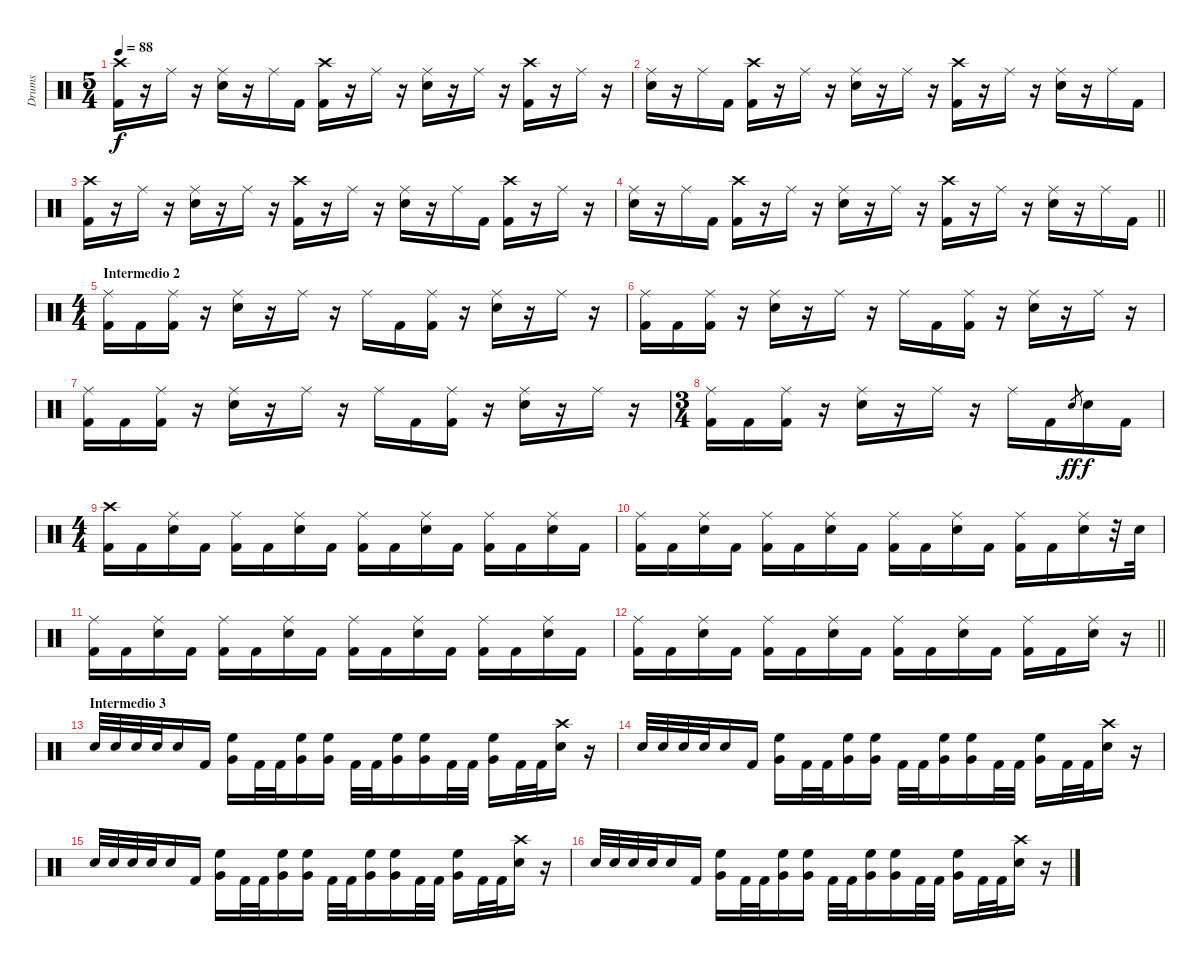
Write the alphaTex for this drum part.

\track ("Drums" "Drums") {instrument percussion}
\staff {score}
\articulation defaults
\ts (5 4)
\tempo 88
\clef neutral
\ks c
("Crash high (hit)" "Kick (hit) 2").16{dy f} r.16 "Ride (middle)".16 r.16 ("Ride (middle)" "Snare (hit) 2").16 r.16 "Ride (middle)".16 "Kick (hit) 2".16 ("Crash high (hit)" "Kick (hit) 2").16 r.16 "Ride (middle)".16 r.16 ("Ride (middle)" "Snare (hit) 2").16 r.16 "Ride (middle)".16 r.16 ("Crash high (hit)" "Kick (hit) 2").16 r.16 "Ride (middle)".16 r.16 |
("Ride (middle)" "Snare (hit) 2").16 r.16 "Ride (middle)".16 "Kick (hit) 2".16 ("Crash high (hit)" "Kick (hit) 2").16 r.16 "Ride (middle)".16 r.16 ("Ride (middle)" "Snare (hit) 2").16 r.16 "Ride (middle)".16 r.16 ("Crash high (hit)" "Kick (hit) 2").16 r.16 "Ride (middle)".16 r.16 ("Ride (middle)" "Snare (hit) 2").16 r.16 "Ride (middle)".16 "Kick (hit) 2".16 |
("Crash high (hit)" "Kick (hit) 2").16 r.16 "Ride (middle)".16 r.16 ("Ride (middle)" "Snare (hit) 2").16 r.16 "Ride (middle)".16 r.16 ("Crash high (hit)" "Kick (hit) 2").16 r.16 "Ride (middle)".16 r.16 ("Ride (middle)" "Snare (hit) 2").16 r.16 "Ride (middle)".16 "Kick (hit) 2".16 ("Crash high (hit)" "Kick (hit) 2").16 r.16 "Ride (middle)".16 r.16 |
\barLineRight lightlight
("Ride (middle)" "Snare (hit) 2").16 r.16 "Ride (middle)".16 "Kick (hit) 2".16 ("Crash high (hit)" "Kick (hit) 2").16 r.16 "Ride (middle)".16 r.16 ("Ride (middle)" "Snare (hit) 2").16 r.16 "Ride (middle)".16 r.16 ("Crash high (hit)" "Kick (hit) 2").16 r.16 "Ride (middle)".16 r.16 ("Ride (middle)" "Snare (hit) 2").16 r.16 "Ride (middle)".16 "Kick (hit) 2".16 |
\ts (4 4)
\section ("" "Intermedio 2")
("Ride (middle)" "Kick (hit) 2").16 "Kick (hit) 2".16 ("Ride (middle)" "Kick (hit) 2").16 r.16 ("Ride (middle)" "Snare (hit) 2").16 r.16 "Ride (middle)".16 r.16 "Ride (middle)".16 "Kick (hit) 2".16 ("Ride (middle)" "Kick (hit) 2").16 r.16 ("Ride (middle)" "Snare (hit) 2").16 r.16 "Ride (middle)".16 r.16 |
("Ride (middle)" "Kick (hit) 2").16 "Kick (hit) 2".16 ("Ride (middle)" "Kick (hit) 2").16 r.16 ("Ride (middle)" "Snare (hit) 2").16 r.16 "Ride (middle)".16 r.16 "Ride (middle)".16 "Kick (hit) 2".16 ("Ride (middle)" "Kick (hit) 2").16 r.16 ("Ride (middle)" "Snare (hit) 2").16 r.16 "Ride (middle)".16 r.16 |
("Ride (middle)" "Kick (hit) 2").16 "Kick (hit) 2".16 ("Ride (middle)" "Kick (hit) 2").16 r.16 ("Ride (middle)" "Snare (hit) 2").16 r.16 "Ride (middle)".16 r.16 "Ride (middle)".16 "Kick (hit) 2".16 ("Ride (middle)" "Kick (hit) 2").16 r.16 ("Ride (middle)" "Snare (hit) 2").16 r.16 "Ride (middle)".16 r.16 |
\ts (3 4)
("Ride (middle)" "Kick (hit) 2").16 "Kick (hit) 2".16 ("Ride (middle)" "Kick (hit) 2").16 r.16 ("Ride (middle)" "Snare (hit) 2").16 r.16 "Ride (middle)".16 r.16 "Ride (middle)".16 "Kick (hit) 2".16 "Snare (hit) 2".8{gr dy ff} "Snare (hit) 2".16{dy f} "Kick (hit) 2".16 |
\ts (4 4)
("Crash high (hit)" "Kick (hit) 2").16 "Kick (hit) 2".16 ("Ride (middle)" "Snare (hit) 2").16 "Kick (hit) 2".16 ("Ride (middle)" "Kick (hit) 2").16 "Kick (hit) 2".16 ("Ride (middle)" "Snare (hit) 2").16 "Kick (hit) 2".16 ("Ride (middle)" "Kick (hit) 2").16 "Kick (hit) 2".16 ("Ride (middle)" "Snare (hit) 2").16 "Kick (hit) 2".16 ("Ride (middle)" "Kick (hit) 2").16 "Kick (hit) 2".16 ("Ride (middle)" "Snare (hit) 2").16 "Kick (hit) 2".16 |
("Ride (middle)" "Kick (hit) 2").16 "Kick (hit) 2".16 ("Ride (middle)" "Snare (hit) 2").16 "Kick (hit) 2".16 ("Ride (middle)" "Kick (hit) 2").16 "Kick (hit) 2".16 ("Ride (middle)" "Snare (hit) 2").16 "Kick (hit) 2".16 ("Ride (middle)" "Kick (hit) 2").16 "Kick (hit) 2".16 ("Ride (middle)" "Snare (hit) 2").16 "Kick (hit) 2".16 ("Ride (middle)" "Kick (hit) 2").16 "Kick (hit) 2".16 ("Ride (middle)" "Snare (hit) 2").16 r.32 "Snare (hit) 2".32 |
("Ride (middle)" "Kick (hit) 2").16 "Kick (hit) 2".16 ("Ride (middle)" "Snare (hit) 2").16 "Kick (hit) 2".16 ("Ride (middle)" "Kick (hit) 2").16 "Kick (hit) 2".16 ("Ride (middle)" "Snare (hit) 2").16 "Kick (hit) 2".16 ("Ride (middle)" "Kick (hit) 2").16 "Kick (hit) 2".16 ("Ride (middle)" "Snare (hit) 2").16 "Kick (hit) 2".16 ("Ride (middle)" "Kick (hit) 2").16 "Kick (hit) 2".16 ("Ride (middle)" "Snare (hit) 2").16 "Kick (hit) 2".16 |
\barLineRight lightlight
("Ride (middle)" "Kick (hit) 2").16 "Kick (hit) 2".16 ("Ride (middle)" "Snare (hit) 2").16 "Kick (hit) 2".16 ("Ride (middle)" "Kick (hit) 2").16 "Kick (hit) 2".16 ("Ride (middle)" "Snare (hit) 2").16 "Kick (hit) 2".16 ("Ride (middle)" "Kick (hit) 2").16 "Kick (hit) 2".16 ("Ride (middle)" "Snare (hit) 2").16 "Kick (hit) 2".16 ("Ride (middle)" "Kick (hit) 2").16 "Kick (hit) 2".16 ("Ride (middle)" "Snare (hit) 2").16 r.16 |
\section ("" "Intermedio 3")
"Snare (hit) 2".32 "Snare (hit) 2".32 "Snare (hit) 2".32 "Snare (hit) 2".32 "Snare (hit) 2".16 "Kick (hit) 2".16 ("High Floor Tom (hit)" "Very Low Tom (hit)").16 "Kick (hit) 2".32 "Kick (hit) 2".32 ("High Floor Tom (hit)" "Very Low Tom (hit)").16 ("High Floor Tom (hit)" "Very Low Tom (hit)").16 "Kick (hit) 2".32 "Kick (hit) 2".32 ("High Floor Tom (hit)" "Very Low Tom (hit)").16 ("High Floor Tom (hit)" "Very Low Tom (hit)").16 "Kick (hit) 2".32 "Kick (hit) 2".32 ("High Floor Tom (hit)" "Very Low Tom (hit)").16 "Kick (hit) 2".32 "Kick (hit) 2".32 ("Crash high (hit)" "Snare (hit) 2").16 r.16 |
"Snare (hit) 2".32 "Snare (hit) 2".32 "Snare (hit) 2".32 "Snare (hit) 2".32 "Snare (hit) 2".16 "Kick (hit) 2".16 ("High Floor Tom (hit)" "Very Low Tom (hit)").16 "Kick (hit) 2".32 "Kick (hit) 2".32 ("High Floor Tom (hit)" "Very Low Tom (hit)").16 ("High Floor Tom (hit)" "Very Low Tom (hit)").16 "Kick (hit) 2".32 "Kick (hit) 2".32 ("High Floor Tom (hit)" "Very Low Tom (hit)").16 ("High Floor Tom (hit)" "Very Low Tom (hit)").16 "Kick (hit) 2".32 "Kick (hit) 2".32 ("High Floor Tom (hit)" "Very Low Tom (hit)").16 "Kick (hit) 2".32 "Kick (hit) 2".32 ("Crash high (hit)" "Snare (hit) 2").16 r.16 |
"Snare (hit) 2".32 "Snare (hit) 2".32 "Snare (hit) 2".32 "Snare (hit) 2".32 "Snare (hit) 2".16 "Kick (hit) 2".16 ("High Floor Tom (hit)" "Very Low Tom (hit)").16 "Kick (hit) 2".32 "Kick (hit) 2".32 ("High Floor Tom (hit)" "Very Low Tom (hit)").16 ("High Floor Tom (hit)" "Very Low Tom (hit)").16 "Kick (hit) 2".32 "Kick (hit) 2".32 ("High Floor Tom (hit)" "Very Low Tom (hit)").16 ("High Floor Tom (hit)" "Very Low Tom (hit)").16 "Kick (hit) 2".32 "Kick (hit) 2".32 ("High Floor Tom (hit)" "Very Low Tom (hit)").16 "Kick (hit) 2".32 "Kick (hit) 2".32 ("Crash high (hit)" "Snare (hit) 2").16 r.16 |
"Snare (hit) 2".32 "Snare (hit) 2".32 "Snare (hit) 2".32 "Snare (hit) 2".32 "Snare (hit) 2".16 "Kick (hit) 2".16 ("High Floor Tom (hit)" "Very Low Tom (hit)").16 "Kick (hit) 2".32 "Kick (hit) 2".32 ("High Floor Tom (hit)" "Very Low Tom (hit)").16 ("High Floor Tom (hit)" "Very Low Tom (hit)").16 "Kick (hit) 2".32 "Kick (hit) 2".32 ("High Floor Tom (hit)" "Very Low Tom (hit)").16 ("High Floor Tom (hit)" "Very Low Tom (hit)").16 "Kick (hit) 2".32 "Kick (hit) 2".32 ("High Floor Tom (hit)" "Very Low Tom (hit)").16 "Kick (hit) 2".32 "Kick (hit) 2".32 ("Crash high (hit)" "Snare (hit) 2").16 r.16
